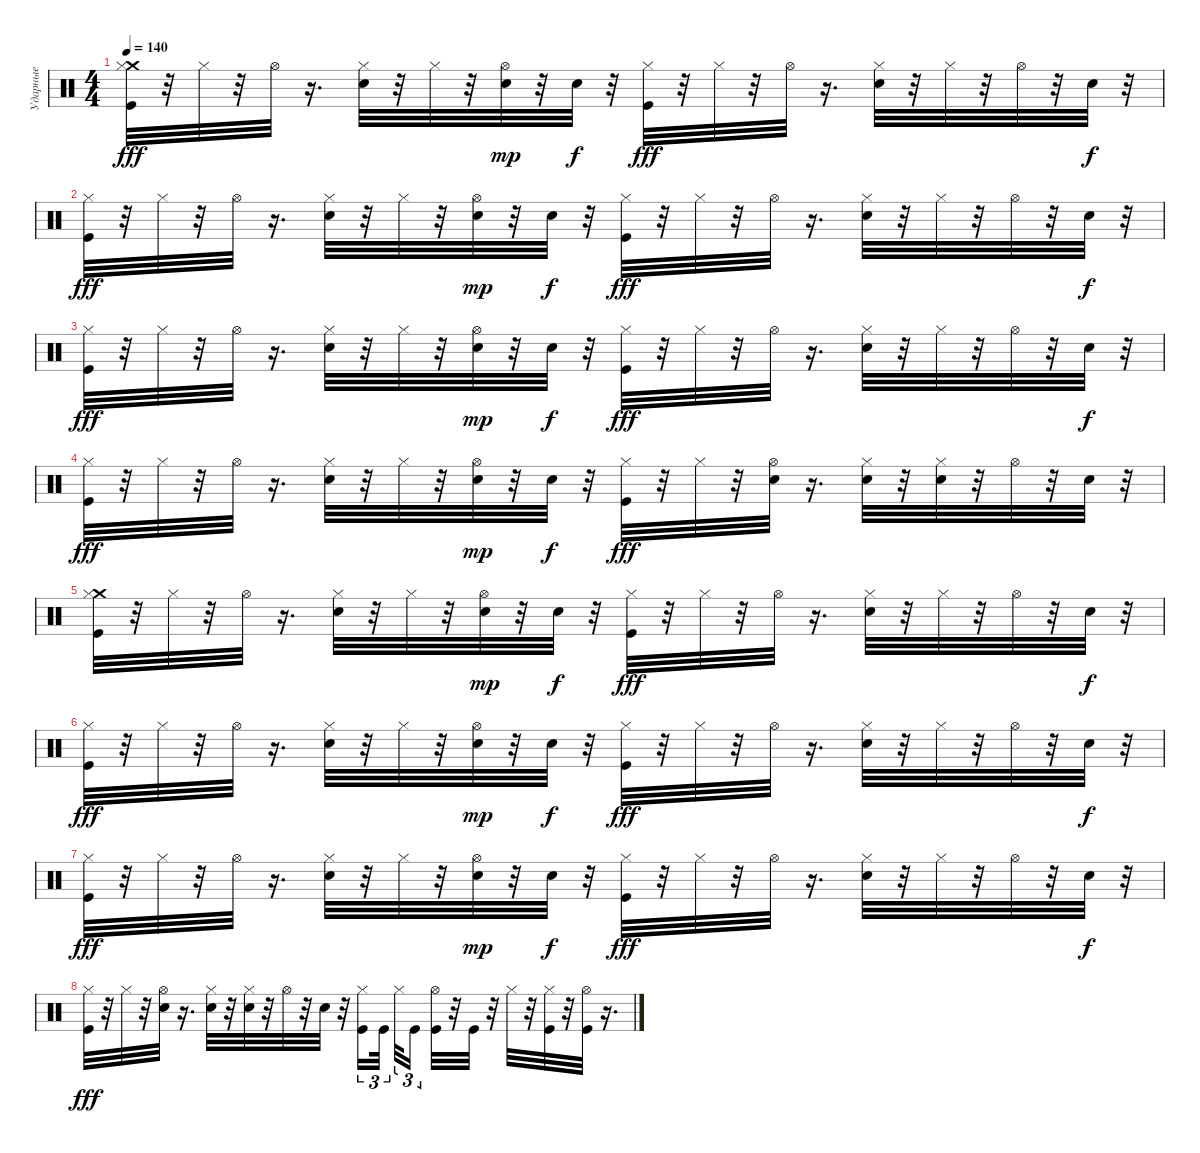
\track ("Ударные" "Ударные") {instrument percussion}
\staff {score}
\articulation defaults
\ts (4 4)
\tempo 140
\clef neutral
\ks c
("Crash medium (hit)" "Kick (hit)" "Hi-Hat (closed)").32{dy fff} r.32 "Hi-Hat (closed)".32 r.32 "Hi-Hat (open)".32 r.16{d} ("Electric Snare (hit)" "Hi-Hat (closed)").32 r.32 "Hi-Hat (closed)".32 r.32 ("Hi-Hat (open)" "Electric Snare (hit)").32{dy mp} r.32 "Electric Snare (hit)".32{dy f} r.32 ("Kick (hit)" "Hi-Hat (closed)").32{dy fff} r.32 "Hi-Hat (closed)".32 r.32 "Hi-Hat (open)".32 r.16{d} ("Electric Snare (hit)" "Hi-Hat (closed)").32 r.32 "Hi-Hat (closed)".32 r.32 "Hi-Hat (open)".32 r.32 "Electric Snare (hit)".32{dy f} r.32 |
("Hi-Hat (closed)" "Kick (hit)").32{dy fff} r.32 "Hi-Hat (closed)".32 r.32 "Hi-Hat (open)".32 r.16{d} ("Electric Snare (hit)" "Hi-Hat (closed)").32 r.32 "Hi-Hat (closed)".32 r.32 ("Hi-Hat (open)" "Electric Snare (hit)").32{dy mp} r.32 "Electric Snare (hit)".32{dy f} r.32 ("Kick (hit)" "Hi-Hat (closed)").32{dy fff} r.32 "Hi-Hat (closed)".32 r.32 "Hi-Hat (open)".32 r.16{d} ("Electric Snare (hit)" "Hi-Hat (closed)").32 r.32 "Hi-Hat (closed)".32 r.32 "Hi-Hat (open)".32 r.32 "Electric Snare (hit)".32{dy f} r.32 |
("Hi-Hat (closed)" "Kick (hit)").32{dy fff} r.32 "Hi-Hat (closed)".32 r.32 "Hi-Hat (open)".32 r.16{d} ("Electric Snare (hit)" "Hi-Hat (closed)").32 r.32 "Hi-Hat (closed)".32 r.32 ("Hi-Hat (open)" "Electric Snare (hit)").32{dy mp} r.32 "Electric Snare (hit)".32{dy f} r.32 ("Kick (hit)" "Hi-Hat (closed)").32{dy fff} r.32 "Hi-Hat (closed)".32 r.32 "Hi-Hat (open)".32 r.16{d} ("Electric Snare (hit)" "Hi-Hat (closed)").32 r.32 "Hi-Hat (closed)".32 r.32 "Hi-Hat (open)".32 r.32 "Electric Snare (hit)".32{dy f} r.32 |
("Hi-Hat (closed)" "Kick (hit)").32{dy fff} r.32 "Hi-Hat (closed)".32 r.32 "Hi-Hat (open)".32 r.16{d} ("Electric Snare (hit)" "Hi-Hat (closed)").32 r.32 "Hi-Hat (closed)".32 r.32 ("Hi-Hat (open)" "Electric Snare (hit)").32{dy mp} r.32 "Electric Snare (hit)".32{dy f} r.32 ("Kick (hit)" "Hi-Hat (closed)").32{dy fff} r.32 "Hi-Hat (closed)".32 r.32 ("Hi-Hat (open)" "Electric Snare (hit)").32 r.16{d} ("Hi-Hat (closed)" "Electric Snare (hit)").32 r.32 ("Hi-Hat (closed)" "Electric Snare (hit)").32 r.32 "Hi-Hat (open)".32 r.32 "Electric Snare (hit)".32 r.32 |
("Crash medium (hit)" "Kick (hit)" "Hi-Hat (closed)").32 r.32 "Hi-Hat (closed)".32 r.32 "Hi-Hat (open)".32 r.16{d} ("Electric Snare (hit)" "Hi-Hat (closed)").32 r.32 "Hi-Hat (closed)".32 r.32 ("Hi-Hat (open)" "Electric Snare (hit)").32{dy mp} r.32 "Electric Snare (hit)".32{dy f} r.32 ("Kick (hit)" "Hi-Hat (closed)").32{dy fff} r.32 "Hi-Hat (closed)".32 r.32 "Hi-Hat (open)".32 r.16{d} ("Electric Snare (hit)" "Hi-Hat (closed)").32 r.32 "Hi-Hat (closed)".32 r.32 "Hi-Hat (open)".32 r.32 "Electric Snare (hit)".32{dy f} r.32 |
("Hi-Hat (closed)" "Kick (hit)").32{dy fff} r.32 "Hi-Hat (closed)".32 r.32 "Hi-Hat (open)".32 r.16{d} ("Electric Snare (hit)" "Hi-Hat (closed)").32 r.32 "Hi-Hat (closed)".32 r.32 ("Hi-Hat (open)" "Electric Snare (hit)").32{dy mp} r.32 "Electric Snare (hit)".32{dy f} r.32 ("Kick (hit)" "Hi-Hat (closed)").32{dy fff} r.32 "Hi-Hat (closed)".32 r.32 "Hi-Hat (open)".32 r.16{d} ("Electric Snare (hit)" "Hi-Hat (closed)").32 r.32 "Hi-Hat (closed)".32 r.32 "Hi-Hat (open)".32 r.32 "Electric Snare (hit)".32{dy f} r.32 |
("Hi-Hat (closed)" "Kick (hit)").32{dy fff} r.32 "Hi-Hat (closed)".32 r.32 "Hi-Hat (open)".32 r.16{d} ("Electric Snare (hit)" "Hi-Hat (closed)").32 r.32 "Hi-Hat (closed)".32 r.32 ("Hi-Hat (open)" "Electric Snare (hit)").32{dy mp} r.32 "Electric Snare (hit)".32{dy f} r.32 ("Kick (hit)" "Hi-Hat (closed)").32{dy fff} r.32 "Hi-Hat (closed)".32 r.32 "Hi-Hat (open)".32 r.16{d} ("Electric Snare (hit)" "Hi-Hat (closed)").32 r.32 "Hi-Hat (closed)".32 r.32 "Hi-Hat (open)".32 r.32 "Electric Snare (hit)".32{dy f} r.32 |
("Hi-Hat (closed)" "Kick (hit)").32{dy fff} r.32 "Hi-Hat (closed)".32 r.32 ("Hi-Hat (open)" "Electric Snare (hit)").32 r.16{d} ("Hi-Hat (closed)" "Electric Snare (hit)").32 r.32 ("Hi-Hat (closed)" "Electric Snare (hit)").32 r.32 "Hi-Hat (open)".32 r.32 "Electric Snare (hit)".32 r.32 ("Hi-Hat (closed)" "Kick (hit)").16{tu (3 2)} "Kick (hit)".32{tu (3 2) beam splitsecondary} "Hi-Hat (closed)".32{tu (3 2)} "Kick (hit)".16{tu (3 2) beam splitsecondary} ("Hi-Hat (open)" "Kick (hit)").32 r.32 "Kick (hit)".32 r.32 "Hi-Hat (closed)".32 r.32 ("Hi-Hat (closed)" "Kick (hit)").32 r.32 ("Hi-Hat (open)" "Kick (hit)").32 r.16{d}
